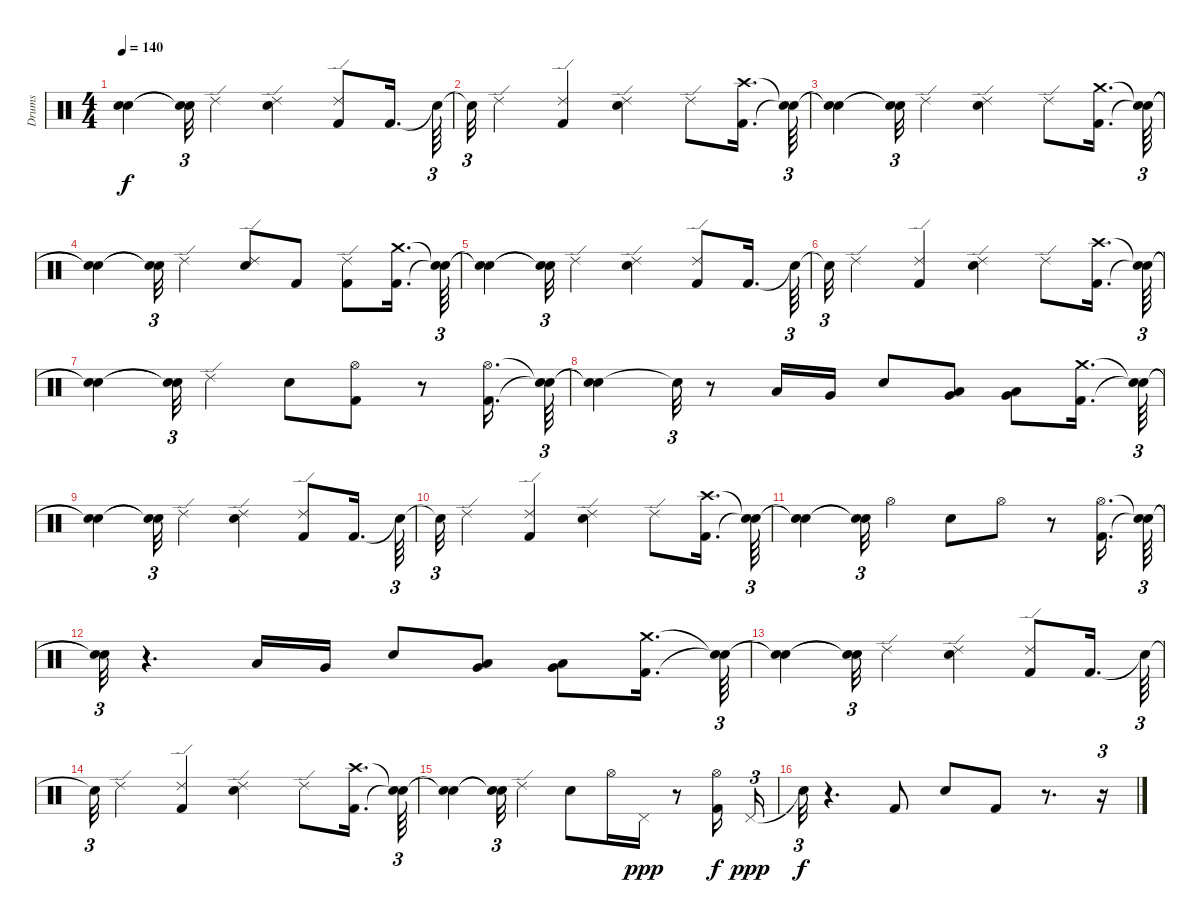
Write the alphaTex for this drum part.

\track ("Drums" "Drums") {instrument percussion}
\staff {score}
\articulation defaults
\ts (4 4)
\tempo 140
\clef neutral
\ks c
("Snare (hit)"{t} "Snare (hit)"{t}).4{dy f} ("Snare (hit)"{t} "Snare (hit)"{t}).32{tu (3 2)} "Ride (edge) 2".4 ("Snare (hit) 2" "Ride (edge) 2").4 ("Kick (hit) 2" "Ride (edge) 2").8 "Kick (hit) 2".16{d} "Snare (hit)"{t}.64{tu (3 2)} |
"Snare (hit)"{t}.32{tu (3 2)} "Ride (edge) 2".4 ("Kick (hit) 2" "Ride (edge) 2").4 ("Snare (hit) 2" "Ride (edge) 2").4 "Ride (edge) 2".8 ("Crash high (hit)" "Kick (hit) 2").16{d} ("Snare (hit)"{t} "Snare (hit)"{t}).64{tu (3 2)} |
("Snare (hit)"{t} "Snare (hit)"{t}).4 ("Snare (hit)"{t} "Snare (hit)"{t}).32{tu (3 2)} "Ride (edge) 2".4 ("Snare (hit) 2" "Ride (edge) 2").4 "Ride (edge) 2".8 ("Crash medium (hit)" "Kick (hit) 2").16{d} ("Snare (hit)"{t} "Snare (hit)"{t}).64{tu (3 2)} |
("Snare (hit)"{t} "Snare (hit)"{t}).4 ("Snare (hit)"{t} "Snare (hit)"{t}).32{tu (3 2)} "Ride (edge) 2".4 ("Snare (hit) 2" "Ride (edge) 2").8 "Kick (hit) 2".8 ("Ride (edge) 2" "Kick (hit) 2").8 ("Crash medium (hit)" "Kick (hit) 2").16{d} ("Snare (hit)"{t} "Snare (hit)"{t}).64{tu (3 2)} |
("Snare (hit)"{t} "Snare (hit)"{t}).4 ("Snare (hit)"{t} "Snare (hit)"{t}).32{tu (3 2)} "Ride (edge) 2".4 ("Snare (hit) 2" "Ride (edge) 2").4 ("Kick (hit) 2" "Ride (edge) 2").8 "Kick (hit) 2".16{d} "Snare (hit)"{t}.64{tu (3 2)} |
"Snare (hit)"{t}.32{tu (3 2)} "Ride (edge) 2".4 ("Kick (hit) 2" "Ride (edge) 2").4 ("Snare (hit) 2" "Ride (edge) 2").4 "Ride (edge) 2".8 ("Crash high (hit)" "Kick (hit) 2").16{d} ("Snare (hit)"{t} "Snare (hit)"{t}).64{tu (3 2)} |
("Snare (hit)"{t} "Snare (hit)"{t}).4 ("Snare (hit)"{t} "Snare (hit)"{t}).32{tu (3 2)} "Ride (edge) 2".4 "Snare (hit) 2".8 ("Hi-Hat (open)" "Kick (hit) 2").8 r.8 ("Hi-Hat (open)" "Kick (hit) 2").16{d} ("Snare (hit)"{t} "Snare (hit)"{t}).64{tu (3 2)} |
("Snare (hit)"{t} "Snare (hit)"{t}).4 "Snare (hit)"{t}.32{tu (3 2)} r.8 "Low Tom (hit)".16 "Very Low Tom (hit)".16 "Snare (hit) 2".8 ("Very Low Tom (hit)" "Low Tom (hit)").8 ("Very Low Tom (hit)" "Low Floor Tom (hit)").8 ("Crash medium (hit)" "Kick (hit) 2").16{d} ("Snare (hit)"{t} "Snare (hit)"{t}).64{tu (3 2)} |
("Snare (hit)"{t} "Snare (hit)"{t}).4 ("Snare (hit)"{t} "Snare (hit)"{t}).32{tu (3 2)} "Ride (edge) 2".4 ("Snare (hit) 2" "Ride (edge) 2").4 ("Kick (hit) 2" "Ride (edge) 2").8 "Kick (hit) 2".16{d} "Snare (hit)"{t}.64{tu (3 2)} |
"Snare (hit)"{t}.32{tu (3 2)} "Ride (edge) 2".4 ("Kick (hit) 2" "Ride (edge) 2").4 ("Snare (hit) 2" "Ride (edge) 2").4 "Ride (edge) 2".8 ("Crash high (hit)" "Kick (hit) 2").16{d} ("Snare (hit)"{t} "Snare (hit)"{t}).64{tu (3 2)} |
("Snare (hit)"{t} "Snare (hit)"{t}).4 ("Snare (hit)"{t} "Snare (hit)"{t}).32{tu (3 2)} "Hi-Hat (open)".4 "Snare (hit) 2".8 "Hi-Hat (open)".8 r.8 ("Hi-Hat (open)" "Kick (hit) 2").16{d} ("Snare (hit)"{t} "Snare (hit)"{t}).64{tu (3 2)} |
("Snare (hit)"{t} "Snare (hit)"{t}).32{tu (3 2)} r.4{d} "Low Tom (hit)".16 "Very Low Tom (hit)".16 "Snare (hit) 2".8 ("Very Low Tom (hit)" "Low Tom (hit)").8 ("Low Floor Tom (hit)" "Very Low Tom (hit)").8 ("Crash medium (hit)" "Kick (hit) 2").16{d} ("Snare (hit)"{t} "Snare (hit)"{t}).64{tu (3 2)} |
("Snare (hit)"{t} "Snare (hit)"{t}).4 ("Snare (hit)"{t} "Snare (hit)"{t}).32{tu (3 2)} "Ride (edge) 2".4 ("Snare (hit) 2" "Ride (edge) 2").4 ("Kick (hit) 2" "Ride (edge) 2").8 "Kick (hit) 2".16{d} "Snare (hit)"{t}.64{tu (3 2)} |
"Snare (hit)"{t}.32{tu (3 2)} "Ride (edge) 2".4 ("Kick (hit) 2" "Ride (edge) 2").4 ("Snare (hit) 2" "Ride (edge) 2").4 "Ride (edge) 2".8 ("Crash high (hit)" "Kick (hit) 2").16{d} ("Snare (hit)"{t} "Snare (hit)"{t}).64{tu (3 2)} |
("Snare (hit)"{t} "Snare (hit)"{t}).4 ("Snare (hit)"{t} "Snare (hit)"{t}).32{tu (3 2)} "Ride (edge) 2".4 "Snare (hit) 2".8 "Hi-Hat (open)".16 "Pedal Hi-Hat (hit)".16{dy ppp} r.8 ("Hi-Hat (open)" "Kick (hit) 2").16{dy f} "Pedal Hi-Hat (hit)".16{tu (3 2) dy ppp} |
"Snare (hit)"{t}.32{tu (3 2) dy f} r.4{d} "Kick (hit) 2".8 "Snare (hit) 2".8 "Kick (hit) 2".8 r.8{d} r.16{tu (3 2)}
